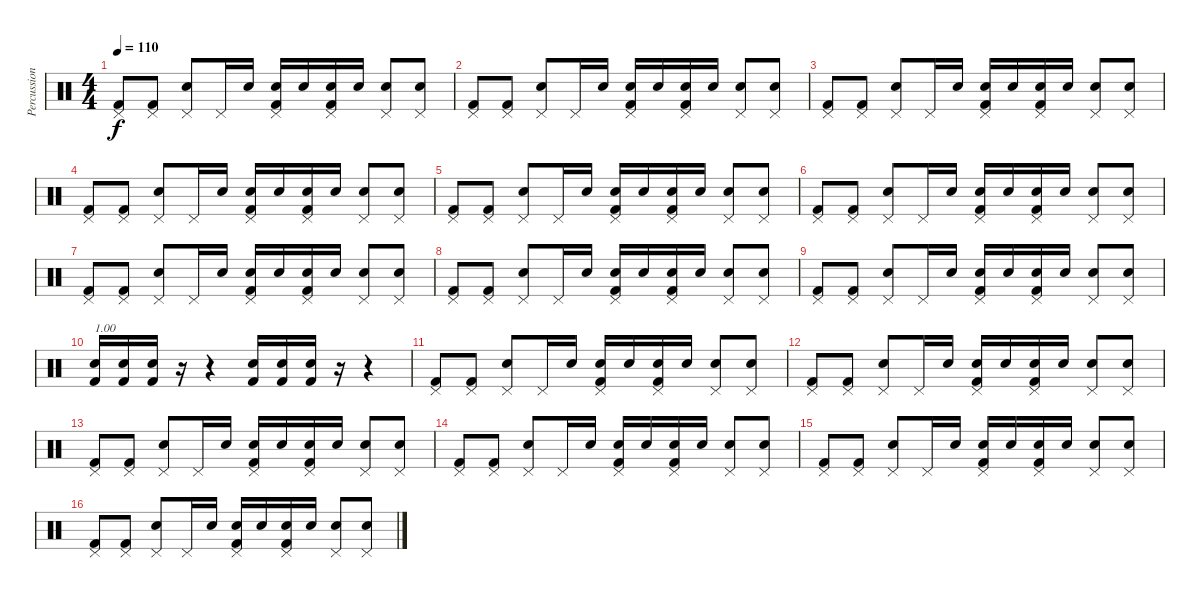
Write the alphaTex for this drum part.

\track ("Percussions" "Percussion") {instrument percussion}
\staff {score}
\articulation defaults
\ts (4 4)
\tempo 110
\clef neutral
\ks c
("Pedal Hi-Hat (hit)" "Kick (hit) 2").8{dy f} ("Pedal Hi-Hat (hit)" "Kick (hit) 2").8 ("Pedal Hi-Hat (hit)" "Electric Snare (hit)").8 "Pedal Hi-Hat (hit)".16 "Electric Snare (hit)".16 ("Pedal Hi-Hat (hit)" "Snare (hit) 2" "Kick (hit) 2").16 "Electric Snare (hit)".16 ("Pedal Hi-Hat (hit)" "Snare (hit) 2" "Kick (hit) 2").16 "Electric Snare (hit)".16 ("Pedal Hi-Hat (hit)" "Electric Snare (hit)").8 ("Pedal Hi-Hat (hit)" "Electric Snare (hit)").8 |
("Pedal Hi-Hat (hit)" "Kick (hit) 2").8 ("Pedal Hi-Hat (hit)" "Kick (hit) 2").8 ("Pedal Hi-Hat (hit)" "Electric Snare (hit)").8 "Pedal Hi-Hat (hit)".16 "Electric Snare (hit)".16 ("Pedal Hi-Hat (hit)" "Snare (hit) 2" "Kick (hit) 2").16 "Electric Snare (hit)".16 ("Pedal Hi-Hat (hit)" "Snare (hit) 2" "Kick (hit) 2").16 "Electric Snare (hit)".16 ("Pedal Hi-Hat (hit)" "Electric Snare (hit)").8 ("Pedal Hi-Hat (hit)" "Electric Snare (hit)").8 |
("Pedal Hi-Hat (hit)" "Kick (hit) 2").8 ("Pedal Hi-Hat (hit)" "Kick (hit) 2").8 ("Pedal Hi-Hat (hit)" "Electric Snare (hit)").8 "Pedal Hi-Hat (hit)".16 "Electric Snare (hit)".16 ("Pedal Hi-Hat (hit)" "Snare (hit) 2" "Kick (hit) 2").16 "Electric Snare (hit)".16 ("Pedal Hi-Hat (hit)" "Snare (hit) 2" "Kick (hit) 2").16 "Electric Snare (hit)".16 ("Pedal Hi-Hat (hit)" "Electric Snare (hit)").8 ("Pedal Hi-Hat (hit)" "Electric Snare (hit)").8 |
("Pedal Hi-Hat (hit)" "Kick (hit) 2").8 ("Pedal Hi-Hat (hit)" "Kick (hit) 2").8 ("Pedal Hi-Hat (hit)" "Electric Snare (hit)").8 "Pedal Hi-Hat (hit)".16 "Electric Snare (hit)".16 ("Pedal Hi-Hat (hit)" "Snare (hit) 2" "Kick (hit) 2").16 "Electric Snare (hit)".16 ("Pedal Hi-Hat (hit)" "Snare (hit) 2" "Kick (hit) 2").16 "Electric Snare (hit)".16 ("Pedal Hi-Hat (hit)" "Electric Snare (hit)").8 ("Pedal Hi-Hat (hit)" "Electric Snare (hit)").8 |
("Pedal Hi-Hat (hit)" "Kick (hit) 2").8 ("Pedal Hi-Hat (hit)" "Kick (hit) 2").8 ("Pedal Hi-Hat (hit)" "Electric Snare (hit)").8 "Pedal Hi-Hat (hit)".16 "Electric Snare (hit)".16 ("Pedal Hi-Hat (hit)" "Snare (hit) 2" "Kick (hit) 2").16 "Electric Snare (hit)".16 ("Pedal Hi-Hat (hit)" "Snare (hit) 2" "Kick (hit) 2").16 "Electric Snare (hit)".16 ("Pedal Hi-Hat (hit)" "Electric Snare (hit)").8 ("Pedal Hi-Hat (hit)" "Electric Snare (hit)").8 |
("Pedal Hi-Hat (hit)" "Kick (hit) 2").8 ("Pedal Hi-Hat (hit)" "Kick (hit) 2").8 ("Pedal Hi-Hat (hit)" "Electric Snare (hit)").8 "Pedal Hi-Hat (hit)".16 "Electric Snare (hit)".16 ("Pedal Hi-Hat (hit)" "Snare (hit) 2" "Kick (hit) 2").16 "Electric Snare (hit)".16 ("Pedal Hi-Hat (hit)" "Snare (hit) 2" "Kick (hit) 2").16 "Electric Snare (hit)".16 ("Pedal Hi-Hat (hit)" "Electric Snare (hit)").8 ("Pedal Hi-Hat (hit)" "Electric Snare (hit)").8 |
("Pedal Hi-Hat (hit)" "Kick (hit) 2").8 ("Pedal Hi-Hat (hit)" "Kick (hit) 2").8 ("Pedal Hi-Hat (hit)" "Electric Snare (hit)").8 "Pedal Hi-Hat (hit)".16 "Electric Snare (hit)".16 ("Pedal Hi-Hat (hit)" "Snare (hit) 2" "Kick (hit) 2").16 "Electric Snare (hit)".16 ("Pedal Hi-Hat (hit)" "Snare (hit) 2" "Kick (hit) 2").16 "Electric Snare (hit)".16 ("Pedal Hi-Hat (hit)" "Electric Snare (hit)").8 ("Pedal Hi-Hat (hit)" "Electric Snare (hit)").8 |
("Pedal Hi-Hat (hit)" "Kick (hit) 2").8 ("Pedal Hi-Hat (hit)" "Kick (hit) 2").8 ("Pedal Hi-Hat (hit)" "Electric Snare (hit)").8 "Pedal Hi-Hat (hit)".16 "Electric Snare (hit)".16 ("Pedal Hi-Hat (hit)" "Snare (hit) 2" "Kick (hit) 2").16 "Electric Snare (hit)".16 ("Pedal Hi-Hat (hit)" "Snare (hit) 2" "Kick (hit) 2").16 "Electric Snare (hit)".16 ("Pedal Hi-Hat (hit)" "Electric Snare (hit)").8 ("Pedal Hi-Hat (hit)" "Electric Snare (hit)").8 |
("Pedal Hi-Hat (hit)" "Kick (hit) 2").8 ("Pedal Hi-Hat (hit)" "Kick (hit) 2").8 ("Pedal Hi-Hat (hit)" "Electric Snare (hit)").8 "Pedal Hi-Hat (hit)".16 "Electric Snare (hit)".16 ("Pedal Hi-Hat (hit)" "Snare (hit) 2" "Kick (hit) 2").16 "Electric Snare (hit)".16 ("Pedal Hi-Hat (hit)" "Snare (hit) 2" "Kick (hit) 2").16 "Electric Snare (hit)".16 ("Pedal Hi-Hat (hit)" "Electric Snare (hit)").8 ("Pedal Hi-Hat (hit)" "Electric Snare (hit)").8 |
("Electric Snare (hit)" "Kick (hit) 2").16{txt "1.00"} ("Electric Snare (hit)" "Kick (hit) 2").16 ("Electric Snare (hit)" "Kick (hit) 2").16 r.16 r.4 ("Electric Snare (hit)" "Kick (hit) 2").16 ("Electric Snare (hit)" "Kick (hit) 2").16 ("Electric Snare (hit)" "Kick (hit) 2").16 r.16 r.4 |
("Pedal Hi-Hat (hit)" "Kick (hit) 2").8 ("Pedal Hi-Hat (hit)" "Kick (hit) 2").8 ("Pedal Hi-Hat (hit)" "Electric Snare (hit)").8 "Pedal Hi-Hat (hit)".16 "Electric Snare (hit)".16 ("Pedal Hi-Hat (hit)" "Snare (hit) 2" "Kick (hit) 2").16 "Electric Snare (hit)".16 ("Pedal Hi-Hat (hit)" "Snare (hit) 2" "Kick (hit) 2").16 "Electric Snare (hit)".16 ("Pedal Hi-Hat (hit)" "Electric Snare (hit)").8 ("Pedal Hi-Hat (hit)" "Electric Snare (hit)").8 |
("Pedal Hi-Hat (hit)" "Kick (hit) 2").8 ("Pedal Hi-Hat (hit)" "Kick (hit) 2").8 ("Pedal Hi-Hat (hit)" "Electric Snare (hit)").8 "Pedal Hi-Hat (hit)".16 "Electric Snare (hit)".16 ("Pedal Hi-Hat (hit)" "Snare (hit) 2" "Kick (hit) 2").16 "Electric Snare (hit)".16 ("Pedal Hi-Hat (hit)" "Snare (hit) 2" "Kick (hit) 2").16 "Electric Snare (hit)".16 ("Pedal Hi-Hat (hit)" "Electric Snare (hit)").8 ("Pedal Hi-Hat (hit)" "Electric Snare (hit)").8 |
("Pedal Hi-Hat (hit)" "Kick (hit) 2").8 ("Pedal Hi-Hat (hit)" "Kick (hit) 2").8 ("Pedal Hi-Hat (hit)" "Electric Snare (hit)").8 "Pedal Hi-Hat (hit)".16 "Electric Snare (hit)".16 ("Pedal Hi-Hat (hit)" "Snare (hit) 2" "Kick (hit) 2").16 "Electric Snare (hit)".16 ("Pedal Hi-Hat (hit)" "Snare (hit) 2" "Kick (hit) 2").16 "Electric Snare (hit)".16 ("Pedal Hi-Hat (hit)" "Electric Snare (hit)").8 ("Pedal Hi-Hat (hit)" "Electric Snare (hit)").8 |
("Pedal Hi-Hat (hit)" "Kick (hit) 2").8 ("Pedal Hi-Hat (hit)" "Kick (hit) 2").8 ("Pedal Hi-Hat (hit)" "Electric Snare (hit)").8 "Pedal Hi-Hat (hit)".16 "Electric Snare (hit)".16 ("Pedal Hi-Hat (hit)" "Snare (hit) 2" "Kick (hit) 2").16 "Electric Snare (hit)".16 ("Pedal Hi-Hat (hit)" "Snare (hit) 2" "Kick (hit) 2").16 "Electric Snare (hit)".16 ("Pedal Hi-Hat (hit)" "Electric Snare (hit)").8 ("Pedal Hi-Hat (hit)" "Electric Snare (hit)").8 |
("Pedal Hi-Hat (hit)" "Kick (hit) 2").8 ("Pedal Hi-Hat (hit)" "Kick (hit) 2").8 ("Pedal Hi-Hat (hit)" "Electric Snare (hit)").8 "Pedal Hi-Hat (hit)".16 "Electric Snare (hit)".16 ("Pedal Hi-Hat (hit)" "Snare (hit) 2" "Kick (hit) 2").16 "Electric Snare (hit)".16 ("Pedal Hi-Hat (hit)" "Snare (hit) 2" "Kick (hit) 2").16 "Electric Snare (hit)".16 ("Pedal Hi-Hat (hit)" "Electric Snare (hit)").8 ("Pedal Hi-Hat (hit)" "Electric Snare (hit)").8 |
("Pedal Hi-Hat (hit)" "Kick (hit) 2").8 ("Pedal Hi-Hat (hit)" "Kick (hit) 2").8 ("Pedal Hi-Hat (hit)" "Electric Snare (hit)").8 "Pedal Hi-Hat (hit)".16 "Electric Snare (hit)".16 ("Pedal Hi-Hat (hit)" "Snare (hit) 2" "Kick (hit) 2").16 "Electric Snare (hit)".16 ("Pedal Hi-Hat (hit)" "Snare (hit) 2" "Kick (hit) 2").16 "Electric Snare (hit)".16 ("Pedal Hi-Hat (hit)" "Electric Snare (hit)").8 ("Pedal Hi-Hat (hit)" "Electric Snare (hit)").8
